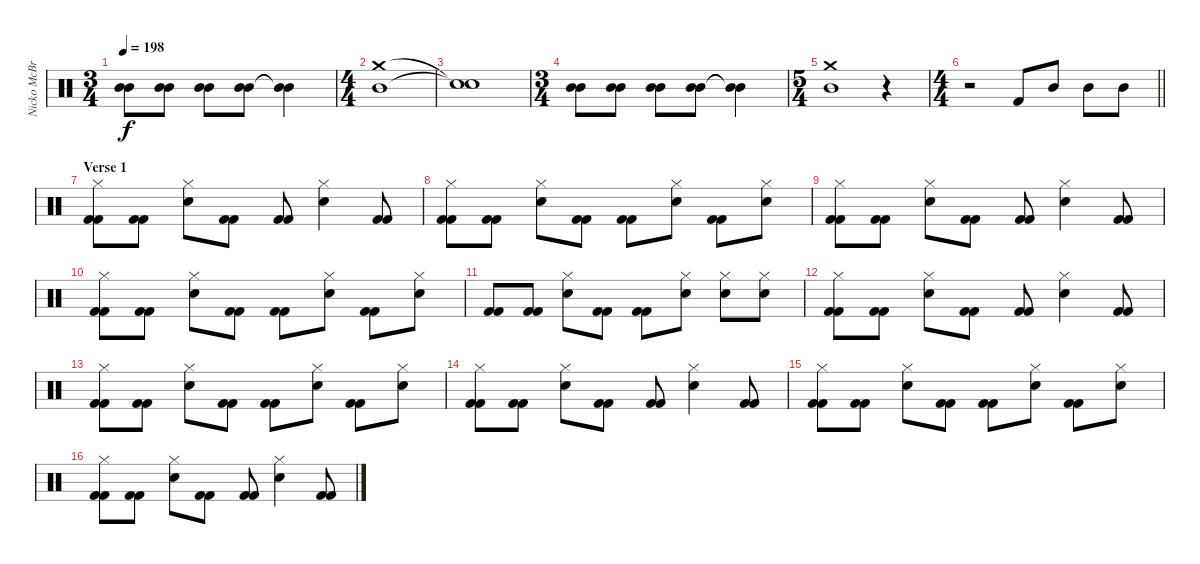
\track ("Nicko McBrain" "Nicko McBr") {instrument percussion}
\staff {score}
\articulation defaults
\ts (3 4)
\tempo 198
\clef neutral
\ks c
("Mid Tom (hit)" "Mid Tom (hit)").8{dy f} ("Mid Tom (hit)" "Mid Tom (hit)").8 ("Mid Tom (hit)" "Mid Tom (hit)").8 ("Mid Tom (hit)" "Mid Tom (hit)").8 ("Mid Tom (hit)"{t} "Mid Tom (hit)"{t}).4 |
\ts (4 4)
("Crash medium (hit)" "Mid Tom (hit)").1 |
("Snare (hit)"{t} "Snare (hit)"{t}).1 |
\ts (3 4)
("Mid Tom (hit)" "Mid Tom (hit)").8 ("Mid Tom (hit)" "Mid Tom (hit)").8 ("Mid Tom (hit)" "Mid Tom (hit)").8 ("Mid Tom (hit)" "Mid Tom (hit)").8 ("Mid Tom (hit)"{t} "Mid Tom (hit)"{t}).4 |
\ts (5 4)
("Mid Tom (hit)" "Crash medium (hit)").1 r.4 |
\ts (4 4)
\barLineRight lightlight
r.2 "Kick (hit) 2".8 "Mid Tom (hit)".8 "Mid Tom (hit)".8 "Mid Tom (hit)".8 |
\section ("" "Verse 1")
("Hi-Hat (closed)" "Kick (hit) 2" "Kick (hit) 2").8 ("Kick (hit) 2" "Kick (hit) 2").8 ("Hi-Hat (closed)" "Electric Snare (hit)").8 ("Kick (hit) 2" "Kick (hit) 2").8 ("Kick (hit) 2" "Kick (hit) 2").8 ("Hi-Hat (closed)" "Electric Snare (hit)").4 ("Kick (hit) 2" "Kick (hit) 2").8 |
("Hi-Hat (closed)" "Kick (hit) 2" "Kick (hit) 2").8 ("Kick (hit) 2" "Kick (hit) 2").8 ("Hi-Hat (closed)" "Electric Snare (hit)").8 ("Kick (hit) 2" "Kick (hit) 2").8 ("Kick (hit) 2" "Kick (hit) 2").8 ("Hi-Hat (closed)" "Electric Snare (hit)").8 ("Kick (hit) 2" "Kick (hit) 2").8 ("Hi-Hat (closed)" "Electric Snare (hit)").8 |
("Hi-Hat (closed)" "Kick (hit) 2" "Kick (hit) 2").8 ("Kick (hit) 2" "Kick (hit) 2").8 ("Hi-Hat (closed)" "Electric Snare (hit)").8 ("Kick (hit) 2" "Kick (hit) 2").8 ("Kick (hit) 2" "Kick (hit) 2").8 ("Hi-Hat (closed)" "Electric Snare (hit)").4 ("Kick (hit) 2" "Kick (hit) 2").8 |
("Hi-Hat (closed)" "Kick (hit) 2" "Kick (hit) 2").8 ("Kick (hit) 2" "Kick (hit) 2").8 ("Hi-Hat (closed)" "Electric Snare (hit)").8 ("Kick (hit) 2" "Kick (hit) 2").8 ("Kick (hit) 2" "Kick (hit) 2").8 ("Hi-Hat (closed)" "Electric Snare (hit)").8 ("Kick (hit) 2" "Kick (hit) 2").8 ("Hi-Hat (closed)" "Electric Snare (hit)").8 |
("Kick (hit) 2" "Kick (hit) 2").8 ("Kick (hit) 2" "Kick (hit) 2").8 ("Hi-Hat (closed)" "Electric Snare (hit)").8 ("Kick (hit) 2" "Kick (hit) 2").8 ("Kick (hit) 2" "Kick (hit) 2").8 ("Hi-Hat (closed)" "Electric Snare (hit)").8 ("Hi-Hat (closed)" "Electric Snare (hit)").8 ("Hi-Hat (closed)" "Electric Snare (hit)").8 |
("Hi-Hat (closed)" "Kick (hit) 2" "Kick (hit) 2").8 ("Kick (hit) 2" "Kick (hit) 2").8 ("Hi-Hat (closed)" "Electric Snare (hit)").8 ("Kick (hit) 2" "Kick (hit) 2").8 ("Kick (hit) 2" "Kick (hit) 2").8 ("Hi-Hat (closed)" "Electric Snare (hit)").4 ("Kick (hit) 2" "Kick (hit) 2").8 |
("Hi-Hat (closed)" "Kick (hit) 2" "Kick (hit) 2").8 ("Kick (hit) 2" "Kick (hit) 2").8 ("Hi-Hat (closed)" "Electric Snare (hit)").8 ("Kick (hit) 2" "Kick (hit) 2").8 ("Kick (hit) 2" "Kick (hit) 2").8 ("Hi-Hat (closed)" "Electric Snare (hit)").8 ("Kick (hit) 2" "Kick (hit) 2").8 ("Hi-Hat (closed)" "Electric Snare (hit)").8 |
("Hi-Hat (closed)" "Kick (hit) 2" "Kick (hit) 2").8 ("Kick (hit) 2" "Kick (hit) 2").8 ("Hi-Hat (closed)" "Electric Snare (hit)").8 ("Kick (hit) 2" "Kick (hit) 2").8 ("Kick (hit) 2" "Kick (hit) 2").8 ("Hi-Hat (closed)" "Electric Snare (hit)").4 ("Kick (hit) 2" "Kick (hit) 2").8 |
("Hi-Hat (closed)" "Kick (hit) 2" "Kick (hit) 2").8 ("Kick (hit) 2" "Kick (hit) 2").8 ("Hi-Hat (closed)" "Electric Snare (hit)").8 ("Kick (hit) 2" "Kick (hit) 2").8 ("Kick (hit) 2" "Kick (hit) 2").8 ("Hi-Hat (closed)" "Electric Snare (hit)").8 ("Kick (hit) 2" "Kick (hit) 2").8 ("Hi-Hat (closed)" "Electric Snare (hit)").8 |
("Hi-Hat (closed)" "Kick (hit) 2" "Kick (hit) 2").8 ("Kick (hit) 2" "Kick (hit) 2").8 ("Hi-Hat (closed)" "Electric Snare (hit)").8 ("Kick (hit) 2" "Kick (hit) 2").8 ("Kick (hit) 2" "Kick (hit) 2").8 ("Hi-Hat (closed)" "Electric Snare (hit)").4 ("Kick (hit) 2" "Kick (hit) 2").8
